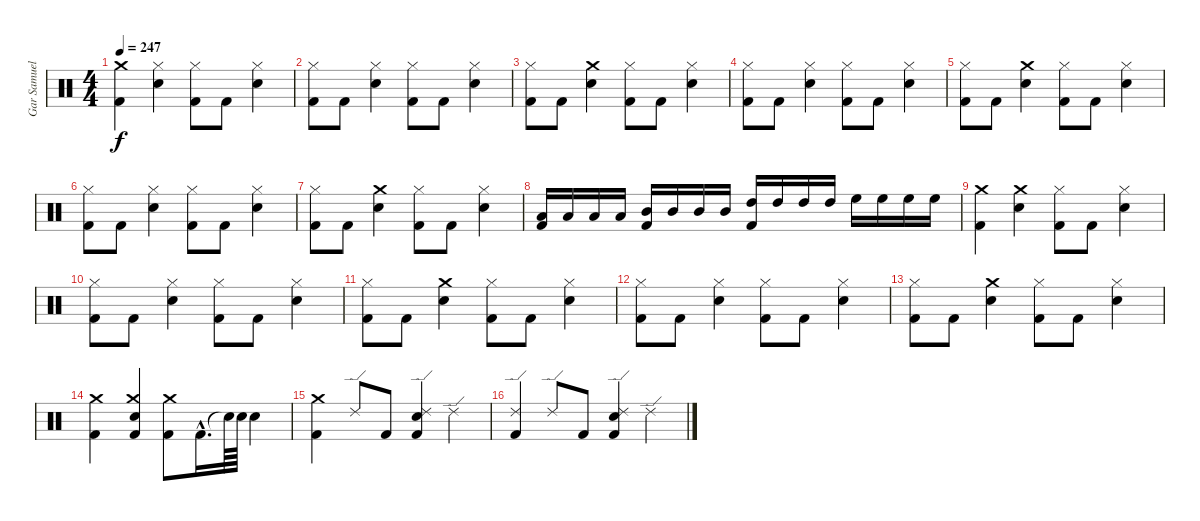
\track ("Gar Samuelson (Drums)" "Gar Samuel") {instrument percussion}
\staff {score}
\articulation defaults
\ts (4 4)
\tempo 247
\clef neutral
\ks c
("Kick (hit) 2" "Crash medium (hit)").4{dy f} ("Hi-Hat (closed)" "Snare (hit) 2").4 ("Hi-Hat (closed)" "Kick (hit) 2").8 "Kick (hit) 2".8 ("Snare (hit) 2" "Hi-Hat (closed)").4 |
("Kick (hit) 2" "Hi-Hat (closed)").8 "Kick (hit) 2".8 ("Snare (hit) 2" "Hi-Hat (closed)").4 ("Kick (hit) 2" "Hi-Hat (closed)").8 "Kick (hit) 2".8 ("Snare (hit) 2" "Hi-Hat (closed)").4 |
("Kick (hit) 2" "Hi-Hat (closed)").8 "Kick (hit) 2".8 ("Crash medium (hit)" "Snare (hit) 2").4 ("Kick (hit) 2" "Hi-Hat (closed)").8 "Kick (hit) 2".8 ("Snare (hit) 2" "Hi-Hat (closed)").4 |
("Kick (hit) 2" "Hi-Hat (closed)").8 "Kick (hit) 2".8 ("Snare (hit) 2" "Hi-Hat (closed)").4 ("Kick (hit) 2" "Hi-Hat (closed)").8 "Kick (hit) 2".8 ("Snare (hit) 2" "Hi-Hat (closed)").4 |
("Kick (hit) 2" "Hi-Hat (closed)").8 "Kick (hit) 2".8 ("Crash medium (hit)" "Snare (hit) 2").4 ("Kick (hit) 2" "Hi-Hat (closed)").8 "Kick (hit) 2".8 ("Snare (hit) 2" "Hi-Hat (closed)").4 |
("Kick (hit) 2" "Hi-Hat (closed)").8 "Kick (hit) 2".8 ("Snare (hit) 2" "Hi-Hat (closed)").4 ("Kick (hit) 2" "Hi-Hat (closed)").8 "Kick (hit) 2".8 ("Snare (hit) 2" "Hi-Hat (closed)").4 |
("Kick (hit) 2" "Hi-Hat (closed)").8 "Kick (hit) 2".8 ("Crash medium (hit)" "Snare (hit) 2").4 ("Kick (hit) 2" "Hi-Hat (closed)").8 "Kick (hit) 2".8 ("Snare (hit) 2" "Hi-Hat (closed)").4 |
("Low Tom (hit)" "Kick (hit) 2").16 "Low Tom (hit)".16 "Low Tom (hit)".16 "Low Tom (hit)".16 ("Mid Tom (hit)" "Kick (hit) 2").16 "Mid Tom (hit)".16 "Mid Tom (hit)".16 "Mid Tom (hit)".16 ("High Tom (hit)" "Kick (hit) 2").16 "High Tom (hit)".16 "High Tom (hit)".16 "High Tom (hit)".16 "High Floor Tom (hit)".16 "High Floor Tom (hit)".16 "High Floor Tom (hit)".16 "High Floor Tom (hit)".16 |
("Kick (hit) 2" "Crash medium (hit)").4 ("Snare (hit) 2" "Crash medium (hit)").4 ("Hi-Hat (closed)" "Kick (hit) 2").8 "Kick (hit) 2".8 ("Hi-Hat (closed)" "Snare (hit) 2").4 |
("Kick (hit) 2" "Hi-Hat (closed)").8 "Kick (hit) 2".8 ("Snare (hit) 2" "Hi-Hat (closed)").4 ("Kick (hit) 2" "Hi-Hat (closed)").8 "Kick (hit) 2".8 ("Snare (hit) 2" "Hi-Hat (closed)").4 |
("Kick (hit) 2" "Hi-Hat (closed)").8 "Kick (hit) 2".8 ("Crash medium (hit)" "Snare (hit) 2").4 ("Kick (hit) 2" "Hi-Hat (closed)").8 "Kick (hit) 2".8 ("Snare (hit) 2" "Hi-Hat (closed)").4 |
("Kick (hit) 2" "Hi-Hat (closed)").8 "Kick (hit) 2".8 ("Snare (hit) 2" "Hi-Hat (closed)").4 ("Kick (hit) 2" "Hi-Hat (closed)").8 "Kick (hit) 2".8 ("Snare (hit) 2" "Hi-Hat (closed)").4 |
("Kick (hit) 2" "Hi-Hat (closed)").8 "Kick (hit) 2".8 ("Crash medium (hit)" "Snare (hit) 2").4 ("Kick (hit) 2" "Hi-Hat (closed)").8 "Kick (hit) 2".8 ("Snare (hit) 2" "Hi-Hat (closed)").4 |
("Kick (hit) 2" "Crash medium (hit)").4 ("Kick (hit) 2" "Snare (hit) 2" "Crash medium (hit)").4 ("Kick (hit) 2" "Crash medium (hit)").8 "Kick (hit) 2"{hac}.16{d} "Snare (hit)"{t}.64 "Snare (hit) 2".64 "Snare (hit) 2".4 |
("Kick (hit) 2" "Crash medium (hit)").4 "Ride (edge) 2".8 "Kick (hit) 2".8 ("Kick (hit) 2" "Snare (hit) 2" "Ride (edge) 2").4 "Ride (edge) 2".4 |
("Kick (hit) 2" "Ride (edge) 2").4 "Ride (edge) 2".8 "Kick (hit) 2".8 ("Kick (hit) 2" "Snare (hit) 2" "Ride (edge) 2").4 "Ride (edge) 2".4
